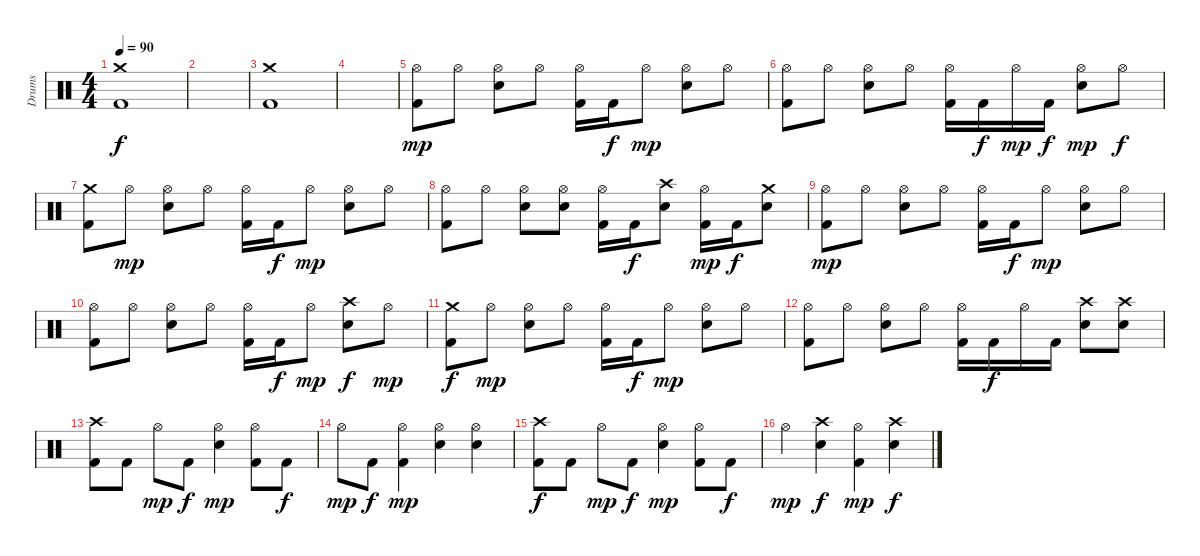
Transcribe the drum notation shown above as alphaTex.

\track ("Drums" "Drums") {instrument percussion}
\staff {score}
\articulation defaults
\ts (4 4)
\tempo 90
\clef neutral
\ks c
("Crash medium (hit)" "Kick (hit) 2").1{dy f} |
|
("Crash medium (hit)" "Kick (hit) 2").1 |
|
\section ("" "")
("Hi-Hat (open)" "Kick (hit) 2").8{dy mp} "Hi-Hat (open)".8 ("Hi-Hat (open)" "Snare (hit) 2").8 "Hi-Hat (open)".8 ("Hi-Hat (open)" "Kick (hit) 2").16 "Kick (hit) 2".16{dy f} "Hi-Hat (open)".8{dy mp} ("Hi-Hat (open)" "Snare (hit) 2").8 "Hi-Hat (open)".8 |
("Hi-Hat (open)" "Kick (hit) 2").8 "Hi-Hat (open)".8 ("Hi-Hat (open)" "Snare (hit) 2").8 "Hi-Hat (open)".8 ("Hi-Hat (open)" "Kick (hit) 2").16 "Kick (hit) 2".16{dy f} "Hi-Hat (open)".16{dy mp} "Kick (hit) 2".16{dy f} ("Hi-Hat (open)" "Snare (hit) 2").8{dy mp} "Hi-Hat (open)".8{dy f} |
("Crash medium (hit)" "Kick (hit) 2").8 "Hi-Hat (open)".8{dy mp} ("Hi-Hat (open)" "Snare (hit) 2").8 "Hi-Hat (open)".8 ("Hi-Hat (open)" "Kick (hit) 2").16 "Kick (hit) 2".16{dy f} "Hi-Hat (open)".8{dy mp} ("Hi-Hat (open)" "Snare (hit) 2").8 "Hi-Hat (open)".8 |
("Hi-Hat (open)" "Kick (hit) 2").8 "Hi-Hat (open)".8 ("Hi-Hat (open)" "Snare (hit) 2").8 ("Hi-Hat (open)" "Snare (hit) 2").8 ("Hi-Hat (open)" "Kick (hit) 2").16 "Kick (hit) 2".16{dy f} ("Crash high (hit)" "Snare (hit) 2").8 ("Hi-Hat (open)" "Kick (hit) 2").16{dy mp} "Kick (hit) 2".16{dy f} ("Crash medium (hit)" "Snare (hit) 2").8 |
("Hi-Hat (open)" "Kick (hit) 2").8{dy mp} "Hi-Hat (open)".8 ("Hi-Hat (open)" "Snare (hit) 2").8 "Hi-Hat (open)".8 ("Hi-Hat (open)" "Kick (hit) 2").16 "Kick (hit) 2".16{dy f} "Hi-Hat (open)".8{dy mp} ("Hi-Hat (open)" "Snare (hit) 2").8 "Hi-Hat (open)".8 |
("Hi-Hat (open)" "Kick (hit) 2").8 "Hi-Hat (open)".8 ("Hi-Hat (open)" "Snare (hit) 2").8 "Hi-Hat (open)".8 ("Hi-Hat (open)" "Kick (hit) 2").16 "Kick (hit) 2".16{dy f} "Hi-Hat (open)".8{dy mp} ("Crash high (hit)" "Snare (hit) 2").8{dy f} "Hi-Hat (open)".8{dy mp} |
("Crash medium (hit)" "Kick (hit) 2").8{dy f} "Hi-Hat (open)".8{dy mp} ("Hi-Hat (open)" "Snare (hit) 2").8 "Hi-Hat (open)".8 ("Hi-Hat (open)" "Kick (hit) 2").16 "Kick (hit) 2".16{dy f} "Hi-Hat (open)".8{dy mp} ("Hi-Hat (open)" "Snare (hit) 2").8 "Hi-Hat (open)".8 |
("Hi-Hat (open)" "Kick (hit) 2").8 "Hi-Hat (open)".8 ("Hi-Hat (open)" "Snare (hit) 2").8 "Hi-Hat (open)".8 ("Hi-Hat (open)" "Kick (hit) 2").16 "Kick (hit) 2".16{dy f} "Hi-Hat (open)".16 "Kick (hit) 2".16 ("Crash high (hit)" "Snare (hit) 2").8 ("Crash high (hit)" "Snare (hit) 2").8 |
\section ("" "")
("Crash high (hit)" "Kick (hit) 2").8 "Kick (hit) 2".8 "Hi-Hat (open)".8{dy mp} "Kick (hit) 2".8{dy f} ("Hi-Hat (open)" "Snare (hit) 2").4{dy mp} ("Hi-Hat (open)" "Kick (hit) 2").8 "Kick (hit) 2".8{dy f} |
"Hi-Hat (open)".8{dy mp} "Kick (hit) 2".8{dy f} ("Hi-Hat (open)" "Kick (hit) 2").4{dy mp} ("Hi-Hat (open)" "Snare (hit) 2").4 ("Hi-Hat (open)" "Snare (hit) 2").4 |
("Crash high (hit)" "Kick (hit) 2").8{dy f} "Kick (hit) 2".8 "Hi-Hat (open)".8{dy mp} "Kick (hit) 2".8{dy f} ("Hi-Hat (open)" "Snare (hit) 2").4{dy mp} ("Hi-Hat (open)" "Kick (hit) 2").8 "Kick (hit) 2".8{dy f} |
"Hi-Hat (open)".4{dy mp} ("Crash high (hit)" "Snare (hit) 2").4{dy f} ("Hi-Hat (open)" "Kick (hit) 2").4{dy mp} ("Crash high (hit)" "Snare (hit) 2").4{dy f}
